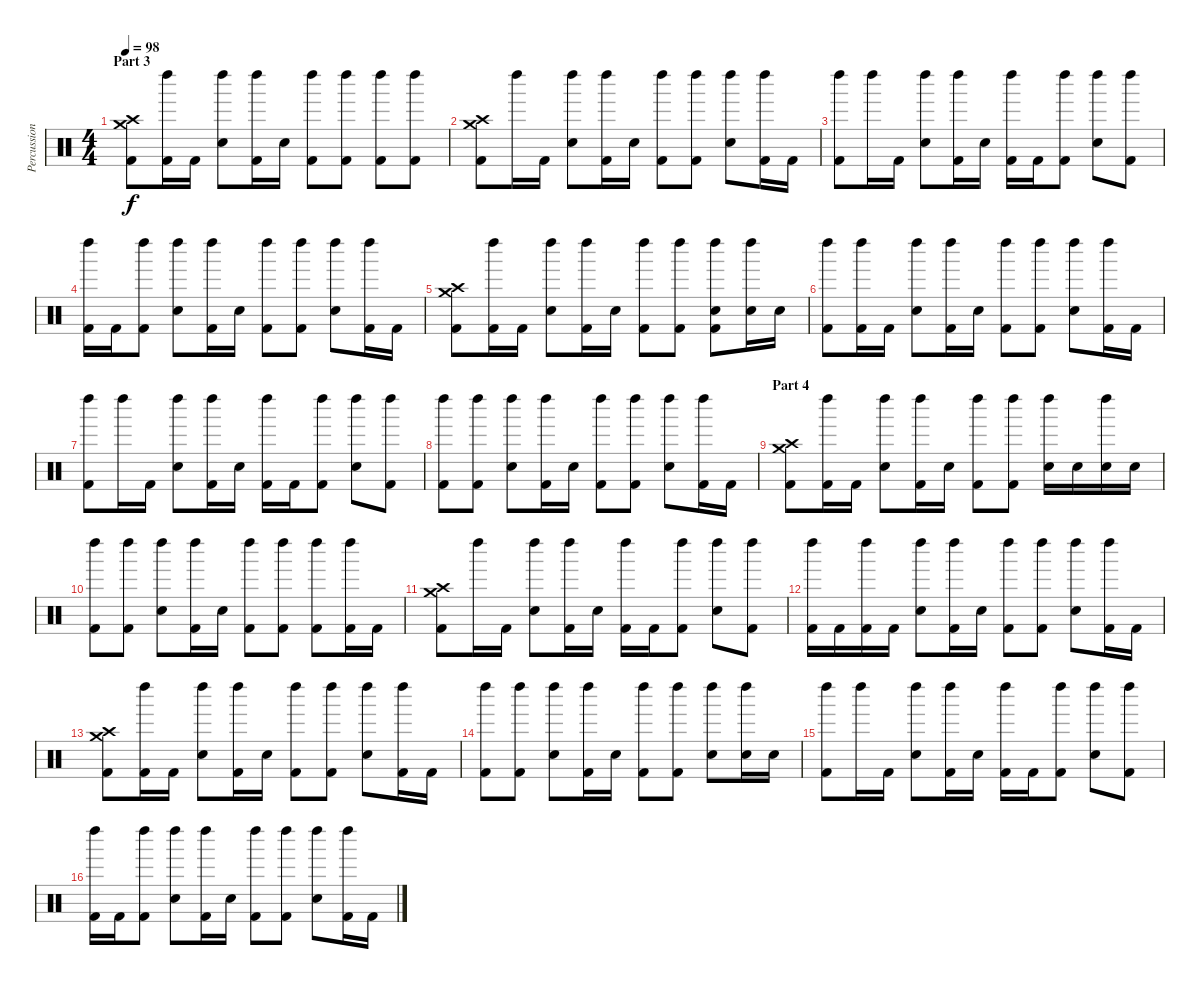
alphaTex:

\track ("Percussion" "Percussion") {instrument percussion}
\staff {score}
\articulation defaults
\ts (4 4)
\section ("" "Part 3")
\tempo 98
\clef neutral
\ks c
("Crash medium (hit)" "Crash high (hit)" "Kick (hit) 2").8{dy f} ("Left Maraca (hit)" "Kick (hit) 2").16 "Kick (hit) 2".16 ("Left Maraca (hit)" "Snare (hit) 2").8 ("Left Maraca (hit)" "Kick (hit) 2").16 "Snare (hit) 2".16 ("Left Maraca (hit)" "Kick (hit) 2").8 ("Left Maraca (hit)" "Kick (hit) 2").8 ("Left Maraca (hit)" "Kick (hit) 2").8 ("Left Maraca (hit)" "Kick (hit) 2").8 |
("Crash medium (hit)" "Crash high (hit)" "Kick (hit) 2").8 "Left Maraca (hit)".16 "Kick (hit) 2".16 ("Left Maraca (hit)" "Snare (hit) 2").8 ("Left Maraca (hit)" "Kick (hit) 2").16 "Snare (hit) 2".16 ("Left Maraca (hit)" "Kick (hit) 2").8 ("Left Maraca (hit)" "Kick (hit) 2").8 ("Left Maraca (hit)" "Snare (hit) 2").8 ("Left Maraca (hit)" "Kick (hit) 2").16 "Kick (hit) 2".16 |
("Left Maraca (hit)" "Kick (hit) 2").8 "Left Maraca (hit)".16 "Kick (hit) 2".16 ("Left Maraca (hit)" "Snare (hit) 2").8 ("Left Maraca (hit)" "Kick (hit) 2").16 "Snare (hit) 2".16 ("Left Maraca (hit)" "Kick (hit) 2").16 "Kick (hit) 2".16 ("Left Maraca (hit)" "Kick (hit) 2").8 ("Left Maraca (hit)" "Snare (hit) 2").8 ("Left Maraca (hit)" "Kick (hit) 2").8 |
("Left Maraca (hit)" "Kick (hit) 2").16 "Kick (hit) 2".16 ("Left Maraca (hit)" "Kick (hit) 2").8 ("Left Maraca (hit)" "Snare (hit) 2").8 ("Left Maraca (hit)" "Kick (hit) 2").16 "Snare (hit) 2".16 ("Left Maraca (hit)" "Kick (hit) 2").8 ("Left Maraca (hit)" "Kick (hit) 2").8 ("Left Maraca (hit)" "Snare (hit) 2").8 ("Left Maraca (hit)" "Kick (hit) 2").16 "Kick (hit) 2".16 |
("Crash medium (hit)" "Crash high (hit)" "Kick (hit) 2").8 ("Left Maraca (hit)" "Kick (hit) 2").16 "Kick (hit) 2".16 ("Left Maraca (hit)" "Snare (hit) 2").8 ("Left Maraca (hit)" "Kick (hit) 2").16 "Snare (hit) 2".16 ("Left Maraca (hit)" "Kick (hit) 2").8 ("Left Maraca (hit)" "Kick (hit) 2").8 ("Left Maraca (hit)" "Snare (hit) 2" "Kick (hit) 2").8 ("Left Maraca (hit)" "Snare (hit) 2").16 "Snare (hit) 2".16 |
("Left Maraca (hit)" "Kick (hit) 2").8 ("Left Maraca (hit)" "Kick (hit) 2").16 "Kick (hit) 2".16 ("Left Maraca (hit)" "Snare (hit) 2").8 ("Left Maraca (hit)" "Kick (hit) 2").16 "Snare (hit) 2".16 ("Left Maraca (hit)" "Kick (hit) 2").8 ("Left Maraca (hit)" "Kick (hit) 2").8 ("Left Maraca (hit)" "Snare (hit) 2").8 ("Left Maraca (hit)" "Kick (hit) 2").16 "Kick (hit) 2".16 |
("Left Maraca (hit)" "Kick (hit) 2").8 "Left Maraca (hit)".16 "Kick (hit) 2".16 ("Left Maraca (hit)" "Snare (hit) 2").8 ("Left Maraca (hit)" "Kick (hit) 2").16 "Snare (hit) 2".16 ("Left Maraca (hit)" "Kick (hit) 2").16 "Kick (hit) 2".16 ("Left Maraca (hit)" "Kick (hit) 2").8 ("Left Maraca (hit)" "Snare (hit) 2").8 ("Left Maraca (hit)" "Kick (hit) 2").8 |
("Left Maraca (hit)" "Kick (hit) 2").8 ("Left Maraca (hit)" "Kick (hit) 2").8 ("Left Maraca (hit)" "Snare (hit) 2").8 ("Left Maraca (hit)" "Kick (hit) 2").16 "Snare (hit) 2".16 ("Left Maraca (hit)" "Kick (hit) 2").8 ("Left Maraca (hit)" "Kick (hit) 2").8 ("Left Maraca (hit)" "Snare (hit) 2").8 ("Left Maraca (hit)" "Kick (hit) 2").16 "Kick (hit) 2".16 |
\section ("" "Part 4")
("Crash medium (hit)" "Crash high (hit)" "Kick (hit) 2").8 ("Left Maraca (hit)" "Kick (hit) 2").16 "Kick (hit) 2".16 ("Left Maraca (hit)" "Snare (hit) 2").8 ("Left Maraca (hit)" "Kick (hit) 2").16 "Snare (hit) 2".16 ("Left Maraca (hit)" "Kick (hit) 2").8 ("Left Maraca (hit)" "Kick (hit) 2").8 ("Left Maraca (hit)" "Snare (hit) 2").16 "Snare (hit) 2".16 ("Left Maraca (hit)" "Snare (hit) 2").16 "Snare (hit) 2".16 |
("Left Maraca (hit)" "Kick (hit) 2").8 ("Left Maraca (hit)" "Kick (hit) 2").8 ("Left Maraca (hit)" "Snare (hit) 2").8 ("Left Maraca (hit)" "Kick (hit) 2").16 "Snare (hit) 2".16 ("Left Maraca (hit)" "Kick (hit) 2").8 ("Left Maraca (hit)" "Kick (hit) 2").8 ("Left Maraca (hit)" "Kick (hit) 2").8 ("Left Maraca (hit)" "Kick (hit) 2").16 "Kick (hit) 2".16 |
("Crash medium (hit)" "Crash high (hit)" "Kick (hit) 2").8 "Left Maraca (hit)".16 "Kick (hit) 2".16 ("Left Maraca (hit)" "Snare (hit) 2").8 ("Left Maraca (hit)" "Kick (hit) 2").16 "Snare (hit) 2".16 ("Left Maraca (hit)" "Kick (hit) 2").16 "Kick (hit) 2".16 ("Left Maraca (hit)" "Kick (hit) 2").8 ("Left Maraca (hit)" "Snare (hit) 2").8 ("Left Maraca (hit)" "Kick (hit) 2").8 |
("Left Maraca (hit)" "Kick (hit) 2").16 "Kick (hit) 2".16 ("Left Maraca (hit)" "Kick (hit) 2").16 "Kick (hit) 2".16 ("Left Maraca (hit)" "Snare (hit) 2").8 ("Left Maraca (hit)" "Kick (hit) 2").16 "Snare (hit) 2".16 ("Left Maraca (hit)" "Kick (hit) 2").8 ("Left Maraca (hit)" "Kick (hit) 2").8 ("Left Maraca (hit)" "Snare (hit) 2").8 ("Left Maraca (hit)" "Kick (hit) 2").16 "Kick (hit) 2".16 |
("Crash medium (hit)" "Crash high (hit)" "Kick (hit) 2").8 ("Left Maraca (hit)" "Kick (hit) 2").16 "Kick (hit) 2".16 ("Left Maraca (hit)" "Snare (hit) 2").8 ("Left Maraca (hit)" "Kick (hit) 2").16 "Snare (hit) 2".16 ("Left Maraca (hit)" "Kick (hit) 2").8 ("Left Maraca (hit)" "Kick (hit) 2").8 ("Left Maraca (hit)" "Snare (hit) 2").8 ("Left Maraca (hit)" "Kick (hit) 2").16 "Kick (hit) 2".16 |
("Left Maraca (hit)" "Kick (hit) 2").8 ("Left Maraca (hit)" "Kick (hit) 2").8 ("Left Maraca (hit)" "Snare (hit) 2").8 ("Left Maraca (hit)" "Kick (hit) 2").16 "Snare (hit) 2".16 ("Left Maraca (hit)" "Kick (hit) 2").8 ("Left Maraca (hit)" "Kick (hit) 2").8 ("Left Maraca (hit)" "Snare (hit) 2").8 ("Left Maraca (hit)" "Snare (hit) 2").16 "Snare (hit) 2".16 |
("Left Maraca (hit)" "Kick (hit) 2").8 "Left Maraca (hit)".16 "Kick (hit) 2".16 ("Left Maraca (hit)" "Snare (hit) 2").8 ("Left Maraca (hit)" "Kick (hit) 2").16 "Snare (hit) 2".16 ("Left Maraca (hit)" "Kick (hit) 2").16 "Kick (hit) 2".16 ("Left Maraca (hit)" "Kick (hit) 2").8 ("Left Maraca (hit)" "Snare (hit) 2").8 ("Left Maraca (hit)" "Kick (hit) 2").8 |
("Left Maraca (hit)" "Kick (hit) 2").16 "Kick (hit) 2".16 ("Left Maraca (hit)" "Kick (hit) 2").8 ("Left Maraca (hit)" "Snare (hit) 2").8 ("Left Maraca (hit)" "Kick (hit) 2").16 "Snare (hit) 2".16 ("Left Maraca (hit)" "Kick (hit) 2").8 ("Left Maraca (hit)" "Kick (hit) 2").8 ("Left Maraca (hit)" "Snare (hit) 2").8 ("Left Maraca (hit)" "Kick (hit) 2").16 "Kick (hit) 2".16
